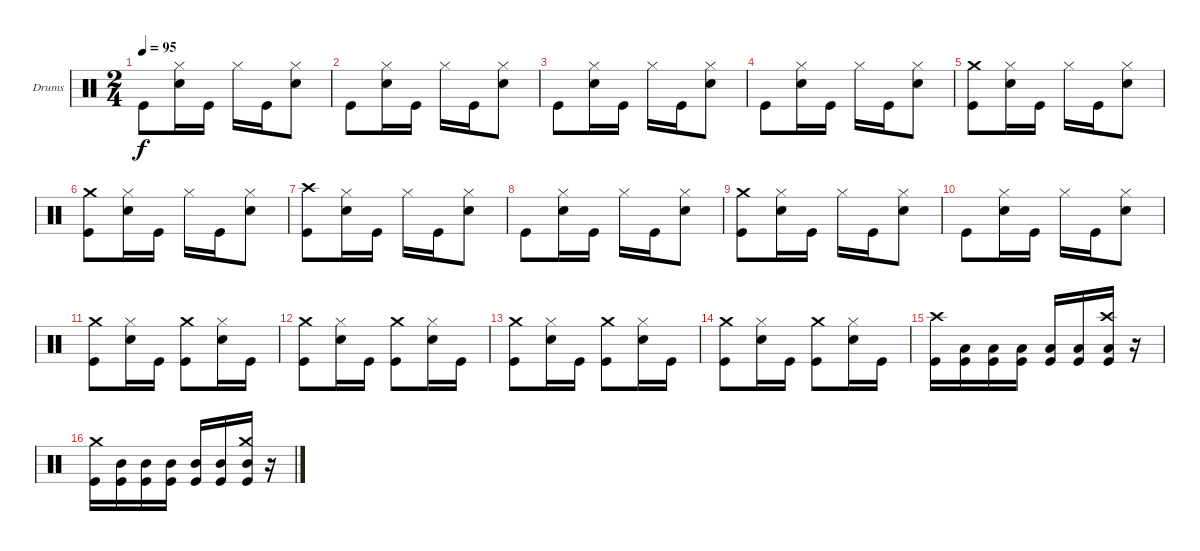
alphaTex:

\bracketExtendMode groupsimilarinstruments
\firstSystemTrackNameOrientation horizontal
\otherSystemsTrackNameOrientation horizontal
\track ("Drumkit" "Drums") {instrument percussion}
\staff {score}
\articulation defaults
\ts (2 4)
\tempo 95
\clef neutral
\ks c "Kick (hit)".8{dy f}
("Hi-Hat (closed)" "Snare (hit) 2").16 "Kick (hit)".16 "Hi-Hat (closed)".16 "Kick (hit)".16 ("Hi-Hat (closed)" "Snare (hit) 2").8 |
"Kick (hit)".8 ("Hi-Hat (closed)" "Snare (hit) 2").16 "Kick (hit)".16 "Hi-Hat (closed)".16 "Kick (hit)".16 ("Hi-Hat (closed)" "Snare (hit) 2").8 |
"Kick (hit)".8 ("Hi-Hat (closed)" "Snare (hit) 2").16 "Kick (hit)".16 "Hi-Hat (closed)".16 "Kick (hit)".16 ("Hi-Hat (closed)" "Snare (hit) 2").8 |
"Kick (hit)".8 ("Hi-Hat (closed)" "Snare (hit) 2").16 "Kick (hit)".16 "Hi-Hat (closed)".16 "Kick (hit)".16 ("Hi-Hat (closed)" "Snare (hit) 2").8 |
("Kick (hit)" "Crash medium (hit)").8 ("Hi-Hat (closed)" "Snare (hit) 2").16 "Kick (hit)".16 "Hi-Hat (closed)".16 "Kick (hit)".16 ("Hi-Hat (closed)" "Snare (hit) 2").8 |
("Kick (hit)" "Crash medium (hit)").8 ("Hi-Hat (closed)" "Snare (hit) 2").16 "Kick (hit)".16 "Hi-Hat (closed)".16 "Kick (hit)".16 ("Hi-Hat (closed)" "Snare (hit) 2").8 |
("Kick (hit)" "Crash high (hit)").8 ("Hi-Hat (closed)" "Snare (hit) 2").16 "Kick (hit)".16 "Hi-Hat (closed)".16 "Kick (hit)".16 ("Hi-Hat (closed)" "Snare (hit) 2").8 |
"Kick (hit)".8 ("Hi-Hat (closed)" "Snare (hit) 2").16 "Kick (hit)".16 "Hi-Hat (closed)".16 "Kick (hit)".16 ("Hi-Hat (closed)" "Snare (hit) 2").8 |
("Kick (hit)" "Crash medium (hit)").8 ("Hi-Hat (closed)" "Snare (hit) 2").16 "Kick (hit)".16 "Hi-Hat (closed)".16 "Kick (hit)".16 ("Hi-Hat (closed)" "Snare (hit) 2").8 |
"Kick (hit)".8 ("Hi-Hat (closed)" "Snare (hit) 2").16 "Kick (hit)".16 "Hi-Hat (closed)".16 "Kick (hit)".16 ("Hi-Hat (closed)" "Snare (hit) 2").8 |
("Kick (hit)" "Crash medium (hit)").8 ("Hi-Hat (closed)" "Snare (hit) 2").16 "Kick (hit)".16 ("Kick (hit)" "Crash medium (hit)").8 ("Hi-Hat (closed)" "Snare (hit) 2").16 "Kick (hit)".16 |
("Kick (hit)" "Crash medium (hit)").8 ("Hi-Hat (closed)" "Snare (hit) 2").16 "Kick (hit)".16 ("Kick (hit)" "Crash medium (hit)").8 ("Hi-Hat (closed)" "Snare (hit) 2").16 "Kick (hit)".16 |
("Kick (hit)" "Crash medium (hit)").8 ("Hi-Hat (closed)" "Snare (hit) 2").16 "Kick (hit)".16 ("Kick (hit)" "Crash medium (hit)").8 ("Hi-Hat (closed)" "Snare (hit) 2").16 "Kick (hit)".16 |
("Kick (hit)" "Crash medium (hit)").8 ("Hi-Hat (closed)" "Snare (hit) 2").16 "Kick (hit)".16 ("Kick (hit)" "Crash medium (hit)").8 ("Hi-Hat (closed)" "Snare (hit) 2").16 "Kick (hit)".16 |
("Kick (hit)" "Crash high (hit)").16 ("Kick (hit)" "Low Tom (hit)").16 ("Kick (hit)" "Low Tom (hit)").16 ("Kick (hit)" "Low Tom (hit)").16 ("Kick (hit)" "Low Tom (hit)").16 ("Kick (hit)" "Low Tom (hit)").16 ("Kick (hit)" "Low Tom (hit)" "Crash high (hit)").16 r.16 |
("Kick (hit)" "Crash medium (hit)").16 ("Kick (hit)" "Mid Tom (hit)").16 ("Kick (hit)" "Mid Tom (hit)").16 ("Kick (hit)" "Mid Tom (hit)").16 ("Kick (hit)" "Mid Tom (hit)").16 ("Kick (hit)" "Mid Tom (hit)").16 ("Kick (hit)" "Mid Tom (hit)" "Crash medium (hit)").16 r.16
